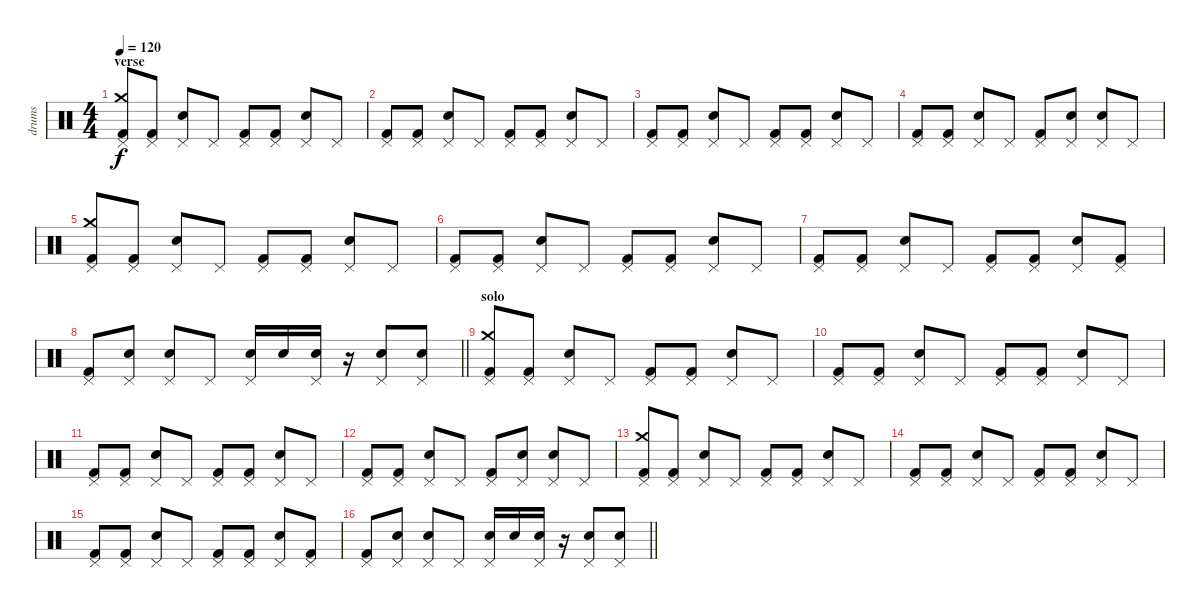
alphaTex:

\track ("drums" "drums") {instrument percussion}
\staff {score}
\articulation defaults
\ts (4 4)
\section ("" "verse")
\tempo 120
\clef neutral
\ks c
("Pedal Hi-Hat (hit)" "Crash medium (hit)" "Kick (hit) 2").8{dy f} ("Pedal Hi-Hat (hit)" "Kick (hit) 2").8 ("Pedal Hi-Hat (hit)" "Snare (hit) 2").8 "Pedal Hi-Hat (hit)".8 ("Pedal Hi-Hat (hit)" "Kick (hit) 2").8 ("Pedal Hi-Hat (hit)" "Kick (hit) 2").8 ("Pedal Hi-Hat (hit)" "Snare (hit) 2").8 "Pedal Hi-Hat (hit)".8 |
("Pedal Hi-Hat (hit)" "Kick (hit) 2").8 ("Pedal Hi-Hat (hit)" "Kick (hit) 2").8 ("Pedal Hi-Hat (hit)" "Snare (hit) 2").8 "Pedal Hi-Hat (hit)".8 ("Pedal Hi-Hat (hit)" "Kick (hit) 2").8 ("Pedal Hi-Hat (hit)" "Kick (hit) 2").8 ("Pedal Hi-Hat (hit)" "Snare (hit) 2").8 "Pedal Hi-Hat (hit)".8 |
("Pedal Hi-Hat (hit)" "Kick (hit) 2").8 ("Pedal Hi-Hat (hit)" "Kick (hit) 2").8 ("Pedal Hi-Hat (hit)" "Snare (hit) 2").8 "Pedal Hi-Hat (hit)".8 ("Pedal Hi-Hat (hit)" "Kick (hit) 2").8 ("Pedal Hi-Hat (hit)" "Kick (hit) 2").8 ("Pedal Hi-Hat (hit)" "Snare (hit) 2").8 "Pedal Hi-Hat (hit)".8 |
("Pedal Hi-Hat (hit)" "Kick (hit) 2").8 ("Pedal Hi-Hat (hit)" "Kick (hit) 2").8 ("Pedal Hi-Hat (hit)" "Snare (hit) 2").8 "Pedal Hi-Hat (hit)".8 ("Pedal Hi-Hat (hit)" "Kick (hit) 2").8 ("Pedal Hi-Hat (hit)" "Snare (hit) 2").8 ("Pedal Hi-Hat (hit)" "Snare (hit) 2").8 "Pedal Hi-Hat (hit)".8 |
("Pedal Hi-Hat (hit)" "Crash medium (hit)" "Kick (hit) 2").8 ("Pedal Hi-Hat (hit)" "Kick (hit) 2").8 ("Pedal Hi-Hat (hit)" "Snare (hit) 2").8 "Pedal Hi-Hat (hit)".8 ("Pedal Hi-Hat (hit)" "Kick (hit) 2").8 ("Pedal Hi-Hat (hit)" "Kick (hit) 2").8 ("Pedal Hi-Hat (hit)" "Snare (hit) 2").8 "Pedal Hi-Hat (hit)".8 |
("Pedal Hi-Hat (hit)" "Kick (hit) 2").8 ("Pedal Hi-Hat (hit)" "Kick (hit) 2").8 ("Pedal Hi-Hat (hit)" "Snare (hit) 2").8 "Pedal Hi-Hat (hit)".8 ("Pedal Hi-Hat (hit)" "Kick (hit) 2").8 ("Pedal Hi-Hat (hit)" "Kick (hit) 2").8 ("Pedal Hi-Hat (hit)" "Snare (hit) 2").8 "Pedal Hi-Hat (hit)".8 |
("Pedal Hi-Hat (hit)" "Kick (hit) 2").8 ("Pedal Hi-Hat (hit)" "Kick (hit) 2").8 ("Pedal Hi-Hat (hit)" "Snare (hit) 2").8 "Pedal Hi-Hat (hit)".8 ("Pedal Hi-Hat (hit)" "Kick (hit) 2").8 ("Pedal Hi-Hat (hit)" "Kick (hit) 2").8 ("Pedal Hi-Hat (hit)" "Snare (hit) 2").8 ("Pedal Hi-Hat (hit)" "Kick (hit) 2").8 |
\barLineRight lightlight
("Pedal Hi-Hat (hit)" "Kick (hit) 2").8 ("Pedal Hi-Hat (hit)" "Snare (hit) 2").8 ("Pedal Hi-Hat (hit)" "Snare (hit) 2").8 "Pedal Hi-Hat (hit)".8 ("Pedal Hi-Hat (hit)" "Snare (hit) 2").16 "Snare (hit) 2".16 ("Pedal Hi-Hat (hit)" "Snare (hit) 2").16 r.16 ("Pedal Hi-Hat (hit)" "Snare (hit) 2").8 ("Pedal Hi-Hat (hit)" "Snare (hit) 2").8 |
\section ("" "solo")
("Pedal Hi-Hat (hit)" "Crash medium (hit)" "Kick (hit) 2").8 ("Pedal Hi-Hat (hit)" "Kick (hit) 2").8 ("Pedal Hi-Hat (hit)" "Snare (hit) 2").8 "Pedal Hi-Hat (hit)".8 ("Pedal Hi-Hat (hit)" "Kick (hit) 2").8 ("Pedal Hi-Hat (hit)" "Kick (hit) 2").8 ("Pedal Hi-Hat (hit)" "Snare (hit) 2").8 "Pedal Hi-Hat (hit)".8 |
("Pedal Hi-Hat (hit)" "Kick (hit) 2").8 ("Pedal Hi-Hat (hit)" "Kick (hit) 2").8 ("Pedal Hi-Hat (hit)" "Snare (hit) 2").8 "Pedal Hi-Hat (hit)".8 ("Pedal Hi-Hat (hit)" "Kick (hit) 2").8 ("Pedal Hi-Hat (hit)" "Kick (hit) 2").8 ("Pedal Hi-Hat (hit)" "Snare (hit) 2").8 "Pedal Hi-Hat (hit)".8 |
("Pedal Hi-Hat (hit)" "Kick (hit) 2").8 ("Pedal Hi-Hat (hit)" "Kick (hit) 2").8 ("Pedal Hi-Hat (hit)" "Snare (hit) 2").8 "Pedal Hi-Hat (hit)".8 ("Pedal Hi-Hat (hit)" "Kick (hit) 2").8 ("Pedal Hi-Hat (hit)" "Kick (hit) 2").8 ("Pedal Hi-Hat (hit)" "Snare (hit) 2").8 "Pedal Hi-Hat (hit)".8 |
("Pedal Hi-Hat (hit)" "Kick (hit) 2").8 ("Pedal Hi-Hat (hit)" "Kick (hit) 2").8 ("Pedal Hi-Hat (hit)" "Snare (hit) 2").8 "Pedal Hi-Hat (hit)".8 ("Pedal Hi-Hat (hit)" "Kick (hit) 2").8 ("Pedal Hi-Hat (hit)" "Snare (hit) 2").8 ("Pedal Hi-Hat (hit)" "Snare (hit) 2").8 "Pedal Hi-Hat (hit)".8 |
("Pedal Hi-Hat (hit)" "Crash medium (hit)" "Kick (hit) 2").8 ("Pedal Hi-Hat (hit)" "Kick (hit) 2").8 ("Pedal Hi-Hat (hit)" "Snare (hit) 2").8 "Pedal Hi-Hat (hit)".8 ("Pedal Hi-Hat (hit)" "Kick (hit) 2").8 ("Pedal Hi-Hat (hit)" "Kick (hit) 2").8 ("Pedal Hi-Hat (hit)" "Snare (hit) 2").8 "Pedal Hi-Hat (hit)".8 |
("Pedal Hi-Hat (hit)" "Kick (hit) 2").8 ("Pedal Hi-Hat (hit)" "Kick (hit) 2").8 ("Pedal Hi-Hat (hit)" "Snare (hit) 2").8 "Pedal Hi-Hat (hit)".8 ("Pedal Hi-Hat (hit)" "Kick (hit) 2").8 ("Pedal Hi-Hat (hit)" "Kick (hit) 2").8 ("Pedal Hi-Hat (hit)" "Snare (hit) 2").8 "Pedal Hi-Hat (hit)".8 |
("Pedal Hi-Hat (hit)" "Kick (hit) 2").8 ("Pedal Hi-Hat (hit)" "Kick (hit) 2").8 ("Pedal Hi-Hat (hit)" "Snare (hit) 2").8 "Pedal Hi-Hat (hit)".8 ("Pedal Hi-Hat (hit)" "Kick (hit) 2").8 ("Pedal Hi-Hat (hit)" "Kick (hit) 2").8 ("Pedal Hi-Hat (hit)" "Snare (hit) 2").8 ("Pedal Hi-Hat (hit)" "Kick (hit) 2").8 |
\barLineRight lightlight
("Pedal Hi-Hat (hit)" "Kick (hit) 2").8 ("Pedal Hi-Hat (hit)" "Snare (hit) 2").8 ("Pedal Hi-Hat (hit)" "Snare (hit) 2").8 "Pedal Hi-Hat (hit)".8 ("Pedal Hi-Hat (hit)" "Snare (hit) 2").16 "Snare (hit) 2".16 ("Pedal Hi-Hat (hit)" "Snare (hit) 2").16 r.16 ("Pedal Hi-Hat (hit)" "Snare (hit) 2").8 ("Pedal Hi-Hat (hit)" "Snare (hit) 2").8
